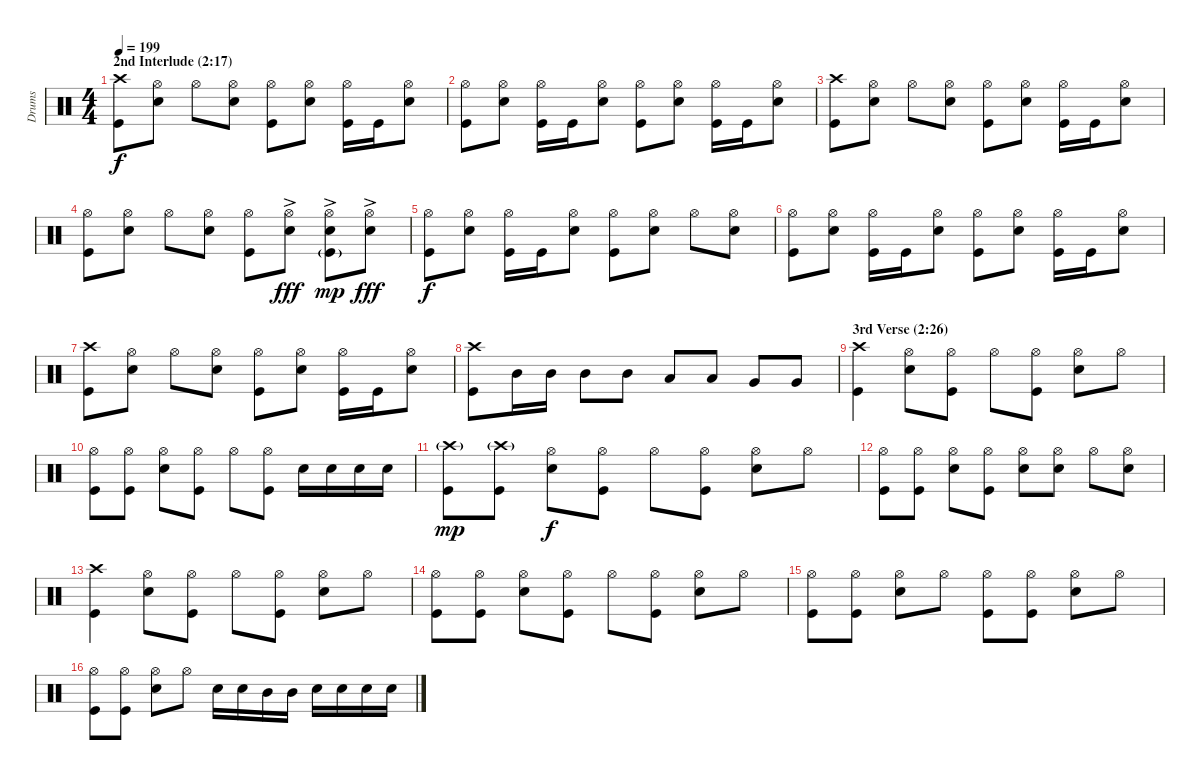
\track ("Drums" "Drums") {instrument percussion}
\staff {score}
\articulation defaults
\ts (4 4)
\section ("" "2nd Interlude (2:17)")
\tempo 199
\clef neutral
\ks c
("Crash high (hit)" "Kick (hit)").8{dy f} ("Hi-Hat (open)" "Snare (hit) 2").8 "Hi-Hat (open)".8 ("Hi-Hat (open)" "Snare (hit) 2").8 ("Hi-Hat (open)" "Kick (hit)").8 ("Hi-Hat (open)" "Snare (hit) 2").8 ("Hi-Hat (open)" "Kick (hit)").16 "Kick (hit)".16 ("Hi-Hat (open)" "Snare (hit) 2").8 |
("Hi-Hat (open)" "Kick (hit)").8 ("Hi-Hat (open)" "Snare (hit) 2").8 ("Hi-Hat (open)" "Kick (hit)").16 "Kick (hit)".16 ("Hi-Hat (open)" "Snare (hit) 2").8 ("Hi-Hat (open)" "Kick (hit)").8 ("Hi-Hat (open)" "Snare (hit) 2").8 ("Hi-Hat (open)" "Kick (hit)").16 "Kick (hit)".16 ("Hi-Hat (open)" "Snare (hit) 2").8 |
("Crash high (hit)" "Kick (hit)").8 ("Hi-Hat (open)" "Snare (hit) 2").8 "Hi-Hat (open)".8 ("Hi-Hat (open)" "Snare (hit) 2").8 ("Hi-Hat (open)" "Kick (hit)").8 ("Hi-Hat (open)" "Snare (hit) 2").8 ("Hi-Hat (open)" "Kick (hit)").16 "Kick (hit)".16 ("Hi-Hat (open)" "Snare (hit) 2").8 |
("Hi-Hat (open)" "Kick (hit)").8 ("Hi-Hat (open)" "Snare (hit) 2").8 "Hi-Hat (open)".8 ("Hi-Hat (open)" "Snare (hit) 2").8 ("Hi-Hat (open)" "Kick (hit)").8 ("Hi-Hat (open)"{ac} "Snare (hit) 2"{ac}).8{dy fff} ("Hi-Hat (open)"{ac} "Snare (hit) 2"{ac} "Kick (hit)"{g}).8{dy mp} ("Hi-Hat (open)"{ac} "Snare (hit) 2"{ac}).8{dy fff} |
("Hi-Hat (open)" "Kick (hit)").8{dy f} ("Hi-Hat (open)" "Snare (hit) 2").8 ("Hi-Hat (open)" "Kick (hit)").16 "Kick (hit)".16 ("Hi-Hat (open)" "Snare (hit) 2").8 ("Hi-Hat (open)" "Kick (hit)").8 ("Hi-Hat (open)" "Snare (hit) 2").8 "Hi-Hat (open)".8 ("Hi-Hat (open)" "Snare (hit) 2").8 |
("Hi-Hat (open)" "Kick (hit)").8 ("Hi-Hat (open)" "Snare (hit) 2").8 ("Hi-Hat (open)" "Kick (hit)").16 "Kick (hit)".16 ("Hi-Hat (open)" "Snare (hit) 2").8 ("Hi-Hat (open)" "Kick (hit)").8 ("Hi-Hat (open)" "Snare (hit) 2").8 ("Hi-Hat (open)" "Kick (hit)").16 "Kick (hit)".16 ("Hi-Hat (open)" "Snare (hit) 2").8 |
("Crash high (hit)" "Kick (hit)").8 ("Hi-Hat (open)" "Snare (hit) 2").8 "Hi-Hat (open)".8 ("Hi-Hat (open)" "Snare (hit) 2").8 ("Hi-Hat (open)" "Kick (hit)").8 ("Hi-Hat (open)" "Snare (hit) 2").8 ("Hi-Hat (open)" "Kick (hit)").16 "Kick (hit)".16 ("Hi-Hat (open)" "Snare (hit) 2").8 |
("Crash high (hit)" "Kick (hit)").8 "Mid Tom (hit)".16 "Mid Tom (hit)".16 "Mid Tom (hit)".8 "Mid Tom (hit)".8 "Low Tom (hit)".8 "Low Tom (hit)".8 "Very Low Tom (hit)".8 "Very Low Tom (hit)".8 |
\section ("" "3rd Verse (2:26)")
("Crash high (hit)" "Kick (hit)").4 ("Hi-Hat (open)" "Snare (hit) 2").8 ("Hi-Hat (open)" "Kick (hit)").8 "Hi-Hat (open)".8 ("Hi-Hat (open)" "Kick (hit)").8 ("Hi-Hat (open)" "Snare (hit) 2").8 "Hi-Hat (open)".8 |
("Hi-Hat (open)" "Kick (hit)").8 ("Hi-Hat (open)" "Kick (hit)").8 ("Hi-Hat (open)" "Snare (hit) 2").8 ("Hi-Hat (open)" "Kick (hit)").8 "Hi-Hat (open)".8 ("Hi-Hat (open)" "Kick (hit)").8 "Snare (hit) 2".16 "Snare (hit) 2".16 "Snare (hit) 2".16 "Snare (hit) 2".16 |
("Crash high (hit)"{g} "Kick (hit)").8{dy mp} ("Crash high (hit)"{g} "Kick (hit)").8 ("Hi-Hat (open)" "Snare (hit) 2").8{dy f} ("Hi-Hat (open)" "Kick (hit)").8 "Hi-Hat (open)".8 ("Hi-Hat (open)" "Kick (hit)").8 ("Hi-Hat (open)" "Snare (hit) 2").8 "Hi-Hat (open)".8 |
("Hi-Hat (open)" "Kick (hit)").8 ("Hi-Hat (open)" "Kick (hit)").8 ("Hi-Hat (open)" "Snare (hit) 2").8 ("Hi-Hat (open)" "Kick (hit)").8 ("Hi-Hat (open)" "Snare (hit) 2").8 ("Hi-Hat (open)" "Snare (hit) 2").8 "Hi-Hat (open)".8 ("Hi-Hat (open)" "Snare (hit) 2").8 |
("Crash high (hit)" "Kick (hit)").4 ("Hi-Hat (open)" "Snare (hit) 2").8 ("Hi-Hat (open)" "Kick (hit)").8 "Hi-Hat (open)".8 ("Hi-Hat (open)" "Kick (hit)").8 ("Hi-Hat (open)" "Snare (hit) 2").8 "Hi-Hat (open)".8 |
("Hi-Hat (open)" "Kick (hit)").8 ("Hi-Hat (open)" "Kick (hit)").8 ("Hi-Hat (open)" "Snare (hit) 2").8 ("Hi-Hat (open)" "Kick (hit)").8 "Hi-Hat (open)".8 ("Hi-Hat (open)" "Kick (hit)").8 ("Hi-Hat (open)" "Snare (hit) 2").8 "Hi-Hat (open)".8 |
("Hi-Hat (open)" "Kick (hit)").8 ("Hi-Hat (open)" "Kick (hit)").8 ("Hi-Hat (open)" "Snare (hit) 2").8 "Hi-Hat (open)".8 ("Hi-Hat (open)" "Kick (hit)").8 ("Hi-Hat (open)" "Kick (hit)").8 ("Hi-Hat (open)" "Snare (hit) 2").8 "Hi-Hat (open)".8 |
("Hi-Hat (open)" "Kick (hit)").8 ("Hi-Hat (open)" "Kick (hit)").8 ("Hi-Hat (open)" "Snare (hit) 2").8 "Hi-Hat (open)".8 "Snare (hit) 2".16 "Snare (hit) 2".16 "Mid Tom (hit)".16 "Mid Tom (hit)".16 "Snare (hit) 2".16 "Snare (hit) 2".16 "Snare (hit) 2".16 "Snare (hit) 2".16
